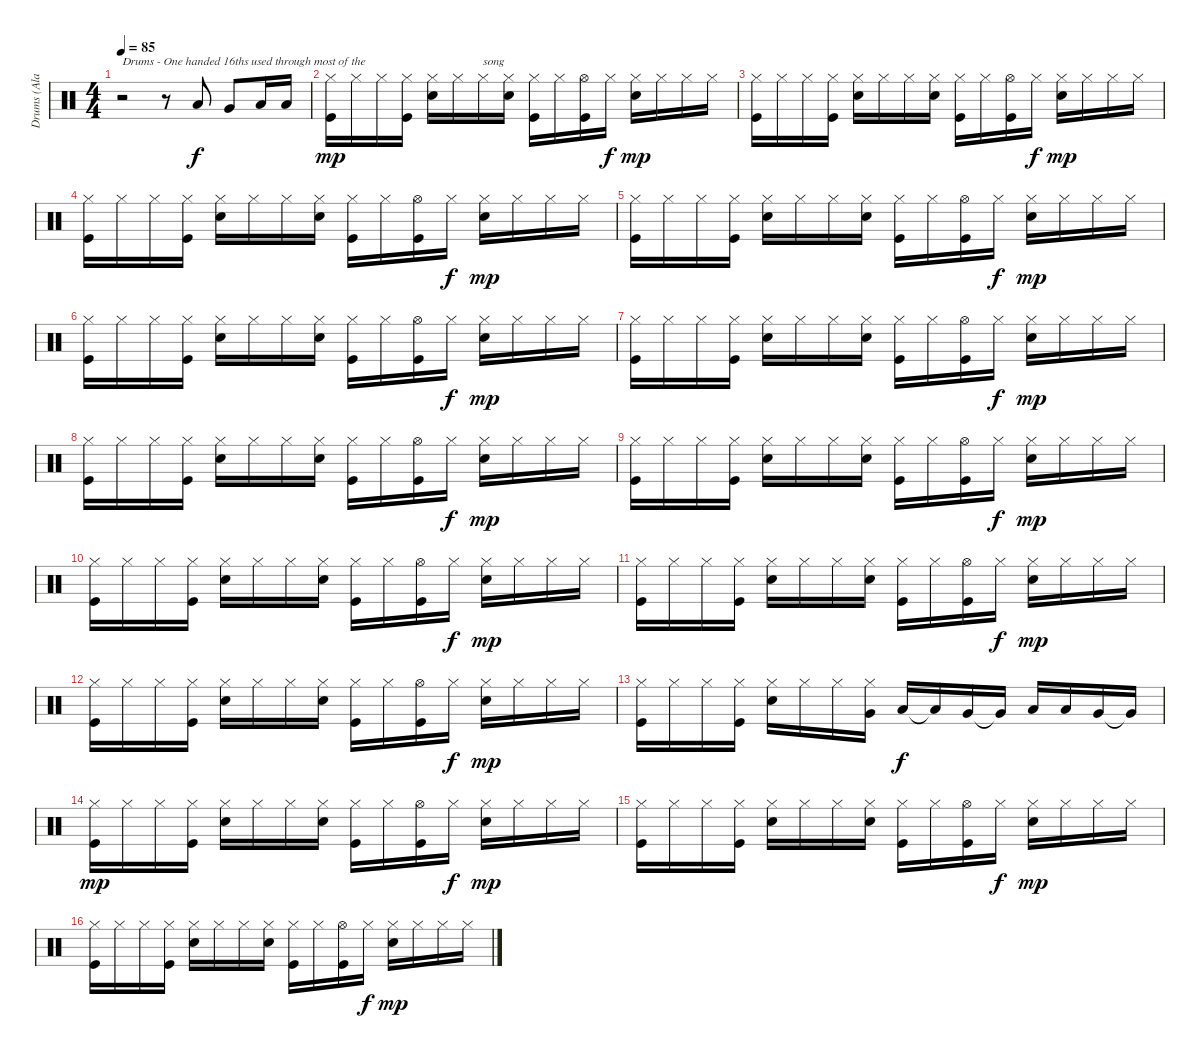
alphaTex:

\track ("Drums (Alan White)" "Drums (Ala") {instrument percussion}
\staff {score}
\articulation defaults
\ts (4 4)
\tempo 85
\clef neutral
\ks c
r.2{txt "Drums - One handed 16ths used through most of the " dy f} r.8 "Low Tom (hit)".8 "Very Low Tom (hit)".8 "Low Tom (hit)".16 "Low Tom (hit)".16 |
("Hi-Hat (closed)" "Kick (hit)").16{dy mp} "Hi-Hat (closed)".16 "Hi-Hat (closed)".16 ("Hi-Hat (closed)" "Kick (hit)").16 ("Hi-Hat (closed)" "Snare (hit) 2").16 "Hi-Hat (closed)".16 "Hi-Hat (closed)".16{txt "song"} ("Hi-Hat (closed)" "Snare (hit) 2").16 ("Hi-Hat (closed)" "Kick (hit)").16 "Hi-Hat (closed)".16 ("Hi-Hat (open)" "Kick (hit)").16 "Hi-Hat (closed)".16{dy f} ("Hi-Hat (closed)" "Snare (hit) 2").16{dy mp} "Hi-Hat (closed)".16 "Hi-Hat (closed)".16 "Hi-Hat (closed)".16 |
("Hi-Hat (closed)" "Kick (hit)").16 "Hi-Hat (closed)".16 "Hi-Hat (closed)".16 ("Hi-Hat (closed)" "Kick (hit)").16 ("Hi-Hat (closed)" "Snare (hit) 2").16 "Hi-Hat (closed)".16 "Hi-Hat (closed)".16 ("Hi-Hat (closed)" "Snare (hit) 2").16 ("Hi-Hat (closed)" "Kick (hit)").16 "Hi-Hat (closed)".16 ("Hi-Hat (open)" "Kick (hit)").16 "Hi-Hat (closed)".16{dy f} ("Hi-Hat (closed)" "Snare (hit) 2").16{dy mp} "Hi-Hat (closed)".16 "Hi-Hat (closed)".16 "Hi-Hat (closed)".16 |
("Hi-Hat (closed)" "Kick (hit)").16 "Hi-Hat (closed)".16 "Hi-Hat (closed)".16 ("Hi-Hat (closed)" "Kick (hit)").16 ("Hi-Hat (closed)" "Snare (hit) 2").16 "Hi-Hat (closed)".16 "Hi-Hat (closed)".16 ("Hi-Hat (closed)" "Snare (hit) 2").16 ("Hi-Hat (closed)" "Kick (hit)").16 "Hi-Hat (closed)".16 ("Hi-Hat (open)" "Kick (hit)").16 "Hi-Hat (closed)".16{dy f} ("Hi-Hat (closed)" "Snare (hit) 2").16{dy mp} "Hi-Hat (closed)".16 "Hi-Hat (closed)".16 "Hi-Hat (closed)".16 |
("Hi-Hat (closed)" "Kick (hit)").16 "Hi-Hat (closed)".16 "Hi-Hat (closed)".16 ("Hi-Hat (closed)" "Kick (hit)").16 ("Hi-Hat (closed)" "Snare (hit) 2").16 "Hi-Hat (closed)".16 "Hi-Hat (closed)".16 ("Hi-Hat (closed)" "Snare (hit) 2").16 ("Hi-Hat (closed)" "Kick (hit)").16 "Hi-Hat (closed)".16 ("Hi-Hat (open)" "Kick (hit)").16 "Hi-Hat (closed)".16{dy f} ("Hi-Hat (closed)" "Snare (hit) 2").16{dy mp} "Hi-Hat (closed)".16 "Hi-Hat (closed)".16 "Hi-Hat (closed)".16 |
("Hi-Hat (closed)" "Kick (hit)").16 "Hi-Hat (closed)".16 "Hi-Hat (closed)".16 ("Hi-Hat (closed)" "Kick (hit)").16 ("Hi-Hat (closed)" "Snare (hit) 2").16 "Hi-Hat (closed)".16 "Hi-Hat (closed)".16 ("Hi-Hat (closed)" "Snare (hit) 2").16 ("Hi-Hat (closed)" "Kick (hit)").16 "Hi-Hat (closed)".16 ("Hi-Hat (open)" "Kick (hit)").16 "Hi-Hat (closed)".16{dy f} ("Hi-Hat (closed)" "Snare (hit) 2").16{dy mp} "Hi-Hat (closed)".16 "Hi-Hat (closed)".16 "Hi-Hat (closed)".16 |
("Hi-Hat (closed)" "Kick (hit)").16 "Hi-Hat (closed)".16 "Hi-Hat (closed)".16 ("Hi-Hat (closed)" "Kick (hit)").16 ("Hi-Hat (closed)" "Snare (hit) 2").16 "Hi-Hat (closed)".16 "Hi-Hat (closed)".16 ("Hi-Hat (closed)" "Snare (hit) 2").16 ("Hi-Hat (closed)" "Kick (hit)").16 "Hi-Hat (closed)".16 ("Hi-Hat (open)" "Kick (hit)").16 "Hi-Hat (closed)".16{dy f} ("Hi-Hat (closed)" "Snare (hit) 2").16{dy mp} "Hi-Hat (closed)".16 "Hi-Hat (closed)".16 "Hi-Hat (closed)".16 |
("Hi-Hat (closed)" "Kick (hit)").16 "Hi-Hat (closed)".16 "Hi-Hat (closed)".16 ("Hi-Hat (closed)" "Kick (hit)").16 ("Hi-Hat (closed)" "Snare (hit) 2").16 "Hi-Hat (closed)".16 "Hi-Hat (closed)".16 ("Hi-Hat (closed)" "Snare (hit) 2").16 ("Hi-Hat (closed)" "Kick (hit)").16 "Hi-Hat (closed)".16 ("Hi-Hat (open)" "Kick (hit)").16 "Hi-Hat (closed)".16{dy f} ("Hi-Hat (closed)" "Snare (hit) 2").16{dy mp} "Hi-Hat (closed)".16 "Hi-Hat (closed)".16 "Hi-Hat (closed)".16 |
("Hi-Hat (closed)" "Kick (hit)").16 "Hi-Hat (closed)".16 "Hi-Hat (closed)".16 ("Hi-Hat (closed)" "Kick (hit)").16 ("Hi-Hat (closed)" "Snare (hit) 2").16 "Hi-Hat (closed)".16 "Hi-Hat (closed)".16 ("Hi-Hat (closed)" "Snare (hit) 2").16 ("Hi-Hat (closed)" "Kick (hit)").16 "Hi-Hat (closed)".16 ("Hi-Hat (open)" "Kick (hit)").16 "Hi-Hat (closed)".16{dy f} ("Hi-Hat (closed)" "Snare (hit) 2").16{dy mp} "Hi-Hat (closed)".16 "Hi-Hat (closed)".16 "Hi-Hat (closed)".16 |
("Hi-Hat (closed)" "Kick (hit)").16 "Hi-Hat (closed)".16 "Hi-Hat (closed)".16 ("Hi-Hat (closed)" "Kick (hit)").16 ("Hi-Hat (closed)" "Snare (hit) 2").16 "Hi-Hat (closed)".16 "Hi-Hat (closed)".16 ("Hi-Hat (closed)" "Snare (hit) 2").16 ("Hi-Hat (closed)" "Kick (hit)").16 "Hi-Hat (closed)".16 ("Hi-Hat (open)" "Kick (hit)").16 "Hi-Hat (closed)".16{dy f} ("Hi-Hat (closed)" "Snare (hit) 2").16{dy mp} "Hi-Hat (closed)".16 "Hi-Hat (closed)".16 "Hi-Hat (closed)".16 |
("Hi-Hat (closed)" "Kick (hit)").16 "Hi-Hat (closed)".16 "Hi-Hat (closed)".16 ("Hi-Hat (closed)" "Kick (hit)").16 ("Hi-Hat (closed)" "Snare (hit) 2").16 "Hi-Hat (closed)".16 "Hi-Hat (closed)".16 ("Hi-Hat (closed)" "Snare (hit) 2").16 ("Hi-Hat (closed)" "Kick (hit)").16 "Hi-Hat (closed)".16 ("Hi-Hat (open)" "Kick (hit)").16 "Hi-Hat (closed)".16{dy f} ("Hi-Hat (closed)" "Snare (hit) 2").16{dy mp} "Hi-Hat (closed)".16 "Hi-Hat (closed)".16 "Hi-Hat (closed)".16 |
("Hi-Hat (closed)" "Kick (hit)").16 "Hi-Hat (closed)".16 "Hi-Hat (closed)".16 ("Hi-Hat (closed)" "Kick (hit)").16 ("Hi-Hat (closed)" "Snare (hit) 2").16 "Hi-Hat (closed)".16 "Hi-Hat (closed)".16 ("Hi-Hat (closed)" "Snare (hit) 2").16 ("Hi-Hat (closed)" "Kick (hit)").16 "Hi-Hat (closed)".16 ("Hi-Hat (open)" "Kick (hit)").16 "Hi-Hat (closed)".16{dy f} ("Hi-Hat (closed)" "Snare (hit) 2").16{dy mp} "Hi-Hat (closed)".16 "Hi-Hat (closed)".16 "Hi-Hat (closed)".16 |
("Hi-Hat (closed)" "Kick (hit)").16 "Hi-Hat (closed)".16 "Hi-Hat (closed)".16 ("Hi-Hat (closed)" "Kick (hit)").16 ("Hi-Hat (closed)" "Snare (hit) 2").16 "Hi-Hat (closed)".16 "Hi-Hat (closed)".16 ("Hi-Hat (closed)" "Very Low Tom (hit)").16 "Low Tom (hit)".16{dy f} "Low Tom (hit)"{t}.16 "Very Low Tom (hit)".16 "Very Low Tom (hit)"{t}.16 "Low Tom (hit)".16 "Low Tom (hit)".16 "Very Low Tom (hit)".16 "Very Low Tom (hit)"{t}.16 |
("Hi-Hat (closed)" "Kick (hit)").16{dy mp} "Hi-Hat (closed)".16 "Hi-Hat (closed)".16 ("Hi-Hat (closed)" "Kick (hit)").16 ("Hi-Hat (closed)" "Snare (hit) 2").16 "Hi-Hat (closed)".16 "Hi-Hat (closed)".16 ("Hi-Hat (closed)" "Snare (hit) 2").16 ("Hi-Hat (closed)" "Kick (hit)").16 "Hi-Hat (closed)".16 ("Hi-Hat (open)" "Kick (hit)").16 "Hi-Hat (closed)".16{dy f} ("Hi-Hat (closed)" "Snare (hit) 2").16{dy mp} "Hi-Hat (closed)".16 "Hi-Hat (closed)".16 "Hi-Hat (closed)".16 |
("Hi-Hat (closed)" "Kick (hit)").16 "Hi-Hat (closed)".16 "Hi-Hat (closed)".16 ("Hi-Hat (closed)" "Kick (hit)").16 ("Hi-Hat (closed)" "Snare (hit) 2").16 "Hi-Hat (closed)".16 "Hi-Hat (closed)".16 ("Hi-Hat (closed)" "Snare (hit) 2").16 ("Hi-Hat (closed)" "Kick (hit)").16 "Hi-Hat (closed)".16 ("Hi-Hat (open)" "Kick (hit)").16 "Hi-Hat (closed)".16{dy f} ("Hi-Hat (closed)" "Snare (hit) 2").16{dy mp} "Hi-Hat (closed)".16 "Hi-Hat (closed)".16 "Hi-Hat (closed)".16 |
("Hi-Hat (closed)" "Kick (hit)").16 "Hi-Hat (closed)".16 "Hi-Hat (closed)".16 ("Hi-Hat (closed)" "Kick (hit)").16 ("Hi-Hat (closed)" "Snare (hit) 2").16 "Hi-Hat (closed)".16 "Hi-Hat (closed)".16 ("Hi-Hat (closed)" "Snare (hit) 2").16 ("Hi-Hat (closed)" "Kick (hit)").16 "Hi-Hat (closed)".16 ("Hi-Hat (open)" "Kick (hit)").16 "Hi-Hat (closed)".16{dy f} ("Hi-Hat (closed)" "Snare (hit) 2").16{dy mp} "Hi-Hat (closed)".16 "Hi-Hat (closed)".16 "Hi-Hat (closed)".16
